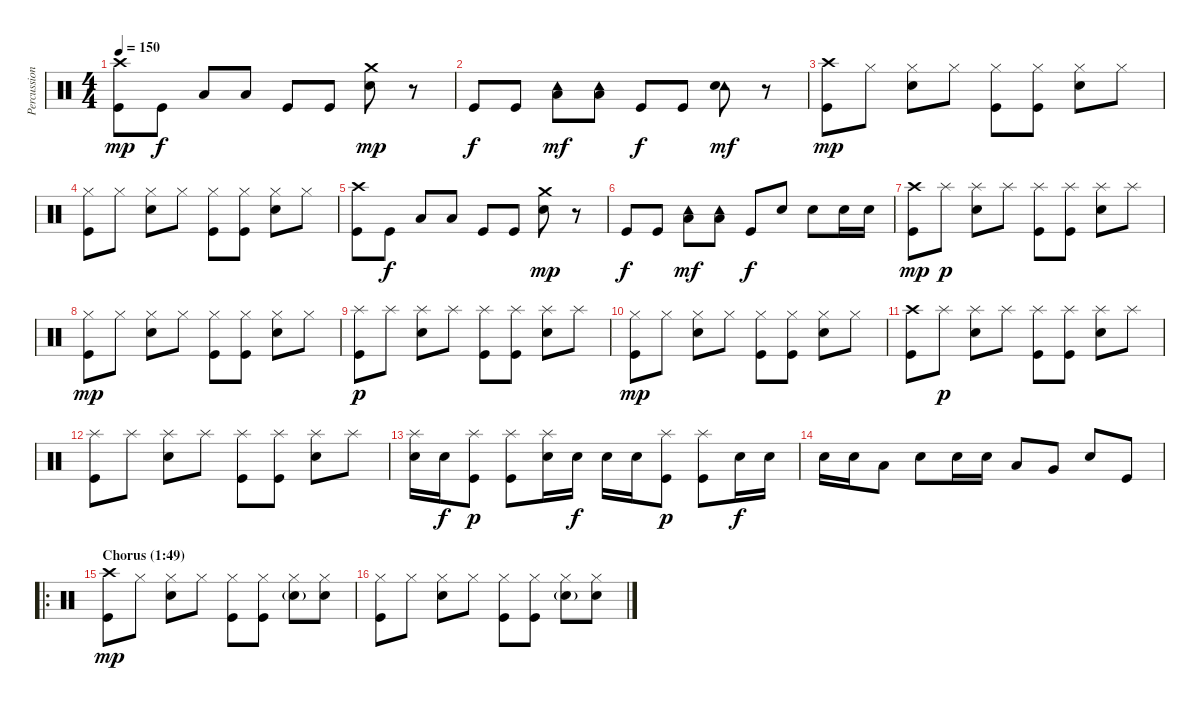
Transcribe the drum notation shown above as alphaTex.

\track ("Percussion" "Percussion") {instrument percussion}
\staff {score}
\articulation defaults
\ts (4 4)
\tempo 150
\clef neutral
\ks c
("Crash high (hit)" "Kick (hit)").8{dy mp} "Kick (hit)".8{dy f} "Low Tom (hit)".8 "Low Tom (hit)".8 "Kick (hit)".8 "Kick (hit)".8 ("Crash medium (hit)" "Electric Snare (hit)").8{dy mp} r.8 |
"Kick (hit)".8{dy f} "Kick (hit)".8 ("Tambourine (hit)" "Low Tom (hit)").8{dy mf} ("Tambourine (hit)" "Low Tom (hit)").8 "Kick (hit)".8{dy f} "Kick (hit)".8 ("Tambourine (hit)" "Electric Snare (hit)").8{dy mf} r.8 |
("Crash high (hit)" "Kick (hit)").8{dy mp} "Hi-Hat (closed)".8 ("Hi-Hat (closed)" "Electric Snare (hit)").8 "Hi-Hat (closed)".8 ("Hi-Hat (closed)" "Kick (hit)").8 ("Hi-Hat (closed)" "Kick (hit)").8 ("Hi-Hat (closed)" "Electric Snare (hit)").8 "Hi-Hat (closed)".8 |
("Hi-Hat (closed)" "Kick (hit)").8 "Hi-Hat (closed)".8 ("Hi-Hat (closed)" "Electric Snare (hit)").8 "Hi-Hat (closed)".8 ("Hi-Hat (closed)" "Kick (hit)").8 ("Hi-Hat (closed)" "Kick (hit)").8 ("Hi-Hat (closed)" "Electric Snare (hit)").8 "Hi-Hat (closed)".8 |
("Crash high (hit)" "Kick (hit)").8 "Kick (hit)".8{dy f} "Low Tom (hit)".8 "Low Tom (hit)".8 "Kick (hit)".8 "Kick (hit)".8 ("Crash medium (hit)" "Electric Snare (hit)").8{dy mp} r.8 |
"Kick (hit)".8{dy f} "Kick (hit)".8 ("Tambourine (hit)" "Low Tom (hit)").8{dy mf} ("Tambourine (hit)" "Low Tom (hit)").8 "Kick (hit)".8{dy f} "Electric Snare (hit)".8 "Electric Snare (hit)".8 "Electric Snare (hit)".16 "Electric Snare (hit)".16 |
("Crash high (hit)" "Kick (hit)").8{dy mp} "Splash (hit)".8{dy p} ("Splash (hit)" "Electric Snare (hit)").8 "Splash (hit)".8 ("Splash (hit)" "Kick (hit)").8 ("Splash (hit)" "Kick (hit)").8 ("Splash (hit)" "Electric Snare (hit)").8 "Splash (hit)".8 |
("Hi-Hat (closed)" "Kick (hit)").8{dy mp} "Hi-Hat (closed)".8 ("Hi-Hat (closed)" "Electric Snare (hit)").8 "Hi-Hat (closed)".8 ("Hi-Hat (closed)" "Kick (hit)").8 ("Hi-Hat (closed)" "Kick (hit)").8 ("Hi-Hat (closed)" "Electric Snare (hit)").8 "Hi-Hat (closed)".8 |
("Splash (hit)" "Kick (hit)").8{dy p} "Splash (hit)".8 ("Splash (hit)" "Electric Snare (hit)").8 "Splash (hit)".8 ("Splash (hit)" "Kick (hit)").8 ("Splash (hit)" "Kick (hit)").8 ("Splash (hit)" "Electric Snare (hit)").8 "Splash (hit)".8 |
("Hi-Hat (closed)" "Kick (hit)").8{dy mp} "Hi-Hat (closed)".8 ("Hi-Hat (closed)" "Electric Snare (hit)").8 "Hi-Hat (closed)".8 ("Hi-Hat (closed)" "Kick (hit)").8 ("Hi-Hat (closed)" "Kick (hit)").8 ("Hi-Hat (closed)" "Electric Snare (hit)").8 "Hi-Hat (closed)".8 |
("Crash high (hit)" "Kick (hit)").8 "Splash (hit)".8{dy p} ("Splash (hit)" "Electric Snare (hit)").8 "Splash (hit)".8 ("Splash (hit)" "Kick (hit)").8 ("Splash (hit)" "Kick (hit)").8 ("Splash (hit)" "Electric Snare (hit)").8 "Splash (hit)".8 |
("Splash (hit)" "Kick (hit)").8 "Splash (hit)".8 ("Splash (hit)" "Electric Snare (hit)").8 "Splash (hit)".8 ("Splash (hit)" "Kick (hit)").8 ("Splash (hit)" "Kick (hit)").8 ("Splash (hit)" "Electric Snare (hit)").8 "Splash (hit)".8 |
("Splash (hit)" "Electric Snare (hit)").16 "Electric Snare (hit)".16{dy f} ("Splash (hit)" "Kick (hit)").8{dy p} ("Splash (hit)" "Kick (hit)").8 ("Splash (hit)" "Electric Snare (hit)").16 "Electric Snare (hit)".16{dy f} "Electric Snare (hit)".16 "Electric Snare (hit)".16 ("Splash (hit)" "Kick (hit)").8{dy p} ("Splash (hit)" "Kick (hit)").8 "Electric Snare (hit)".16{dy f} "Electric Snare (hit)".16 |
"Electric Snare (hit)".16 "Electric Snare (hit)".16 "Low Tom (hit)".8 "Electric Snare (hit)".8 "Electric Snare (hit)".16 "Electric Snare (hit)".16 "Low Tom (hit)".8 "Very Low Tom (hit)".8 "Electric Snare (hit)".8 "Kick (hit)".8 |
\ro
\section ("" "Chorus (1:49)")
("Crash high (hit)" "Kick (hit)").8{dy mp} "Hi-Hat (closed)".8 ("Hi-Hat (closed)" "Electric Snare (hit)").8 "Hi-Hat (closed)".8 ("Hi-Hat (closed)" "Kick (hit)").8 ("Hi-Hat (closed)" "Kick (hit)").8 ("Hi-Hat (closed)" "Electric Snare (hit)"{g}).8 ("Hi-Hat (closed)" "Electric Snare (hit)").8 |
("Hi-Hat (closed)" "Kick (hit)").8 "Hi-Hat (closed)".8 ("Hi-Hat (closed)" "Electric Snare (hit)").8 "Hi-Hat (closed)".8 ("Hi-Hat (closed)" "Kick (hit)").8 ("Hi-Hat (closed)" "Kick (hit)").8 ("Hi-Hat (closed)" "Electric Snare (hit)"{g}).8 ("Hi-Hat (closed)" "Electric Snare (hit)").8
